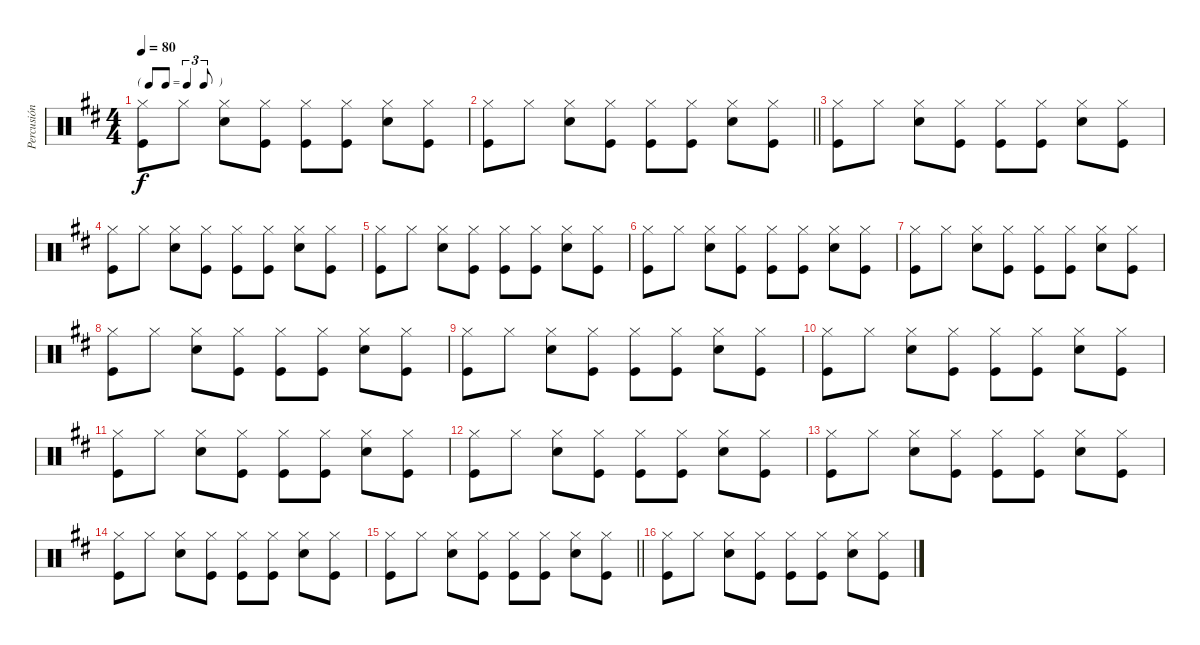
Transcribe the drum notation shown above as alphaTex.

\track ("Percusión" "Percusión") {instrument percussion}
\staff {score}
\articulation defaults
\ts (4 4)
\tf triplet8th
\tempo 80
\clef neutral
\ks d
("Hi-Hat (closed)" "Kick (hit)").8{dy f} "Hi-Hat (closed)".8 ("Hi-Hat (closed)" "Electric Snare (hit)").8 ("Hi-Hat (closed)" "Kick (hit)").8 ("Hi-Hat (closed)" "Kick (hit)").8 ("Hi-Hat (closed)" "Kick (hit)").8 ("Hi-Hat (closed)" "Electric Snare (hit)").8 ("Hi-Hat (closed)" "Kick (hit)").8 |
\barLineRight lightlight
("Hi-Hat (closed)" "Kick (hit)").8 "Hi-Hat (closed)".8 ("Hi-Hat (closed)" "Electric Snare (hit)").8 ("Hi-Hat (closed)" "Kick (hit)").8 ("Hi-Hat (closed)" "Kick (hit)").8 ("Hi-Hat (closed)" "Kick (hit)").8 ("Hi-Hat (closed)" "Electric Snare (hit)").8 ("Hi-Hat (closed)" "Kick (hit)").8 |
("Hi-Hat (closed)" "Kick (hit)").8 "Hi-Hat (closed)".8 ("Hi-Hat (closed)" "Electric Snare (hit)").8 ("Hi-Hat (closed)" "Kick (hit)").8 ("Hi-Hat (closed)" "Kick (hit)").8 ("Hi-Hat (closed)" "Kick (hit)").8 ("Hi-Hat (closed)" "Electric Snare (hit)").8 ("Hi-Hat (closed)" "Kick (hit)").8 |
("Hi-Hat (closed)" "Kick (hit)").8 "Hi-Hat (closed)".8 ("Hi-Hat (closed)" "Electric Snare (hit)").8 ("Hi-Hat (closed)" "Kick (hit)").8 ("Hi-Hat (closed)" "Kick (hit)").8 ("Hi-Hat (closed)" "Kick (hit)").8 ("Hi-Hat (closed)" "Electric Snare (hit)").8 ("Hi-Hat (closed)" "Kick (hit)").8 |
("Hi-Hat (closed)" "Kick (hit)").8 "Hi-Hat (closed)".8 ("Hi-Hat (closed)" "Electric Snare (hit)").8 ("Hi-Hat (closed)" "Kick (hit)").8 ("Hi-Hat (closed)" "Kick (hit)").8 ("Hi-Hat (closed)" "Kick (hit)").8 ("Hi-Hat (closed)" "Electric Snare (hit)").8 ("Hi-Hat (closed)" "Kick (hit)").8 |
("Hi-Hat (closed)" "Kick (hit)").8 "Hi-Hat (closed)".8 ("Hi-Hat (closed)" "Electric Snare (hit)").8 ("Hi-Hat (closed)" "Kick (hit)").8 ("Hi-Hat (closed)" "Kick (hit)").8 ("Hi-Hat (closed)" "Kick (hit)").8 ("Hi-Hat (closed)" "Electric Snare (hit)").8 ("Hi-Hat (closed)" "Kick (hit)").8 |
("Hi-Hat (closed)" "Kick (hit)").8 "Hi-Hat (closed)".8 ("Hi-Hat (closed)" "Electric Snare (hit)").8 ("Hi-Hat (closed)" "Kick (hit)").8 ("Hi-Hat (closed)" "Kick (hit)").8 ("Hi-Hat (closed)" "Kick (hit)").8 ("Hi-Hat (closed)" "Electric Snare (hit)").8 ("Hi-Hat (closed)" "Kick (hit)").8 |
("Hi-Hat (closed)" "Kick (hit)").8 "Hi-Hat (closed)".8 ("Hi-Hat (closed)" "Electric Snare (hit)").8 ("Hi-Hat (closed)" "Kick (hit)").8 ("Hi-Hat (closed)" "Kick (hit)").8 ("Hi-Hat (closed)" "Kick (hit)").8 ("Hi-Hat (closed)" "Electric Snare (hit)").8 ("Hi-Hat (closed)" "Kick (hit)").8 |
("Hi-Hat (closed)" "Kick (hit)").8 "Hi-Hat (closed)".8 ("Hi-Hat (closed)" "Electric Snare (hit)").8 ("Hi-Hat (closed)" "Kick (hit)").8 ("Hi-Hat (closed)" "Kick (hit)").8 ("Hi-Hat (closed)" "Kick (hit)").8 ("Hi-Hat (closed)" "Electric Snare (hit)").8 ("Hi-Hat (closed)" "Kick (hit)").8 |
("Hi-Hat (closed)" "Kick (hit)").8 "Hi-Hat (closed)".8 ("Hi-Hat (closed)" "Electric Snare (hit)").8 ("Hi-Hat (closed)" "Kick (hit)").8 ("Hi-Hat (closed)" "Kick (hit)").8 ("Hi-Hat (closed)" "Kick (hit)").8 ("Hi-Hat (closed)" "Electric Snare (hit)").8 ("Hi-Hat (closed)" "Kick (hit)").8 |
("Hi-Hat (closed)" "Kick (hit)").8 "Hi-Hat (closed)".8 ("Hi-Hat (closed)" "Electric Snare (hit)").8 ("Hi-Hat (closed)" "Kick (hit)").8 ("Hi-Hat (closed)" "Kick (hit)").8 ("Hi-Hat (closed)" "Kick (hit)").8 ("Hi-Hat (closed)" "Electric Snare (hit)").8 ("Hi-Hat (closed)" "Kick (hit)").8 |
("Hi-Hat (closed)" "Kick (hit)").8 "Hi-Hat (closed)".8 ("Hi-Hat (closed)" "Electric Snare (hit)").8 ("Hi-Hat (closed)" "Kick (hit)").8 ("Hi-Hat (closed)" "Kick (hit)").8 ("Hi-Hat (closed)" "Kick (hit)").8 ("Hi-Hat (closed)" "Electric Snare (hit)").8 ("Hi-Hat (closed)" "Kick (hit)").8 |
("Hi-Hat (closed)" "Kick (hit)").8 "Hi-Hat (closed)".8 ("Hi-Hat (closed)" "Electric Snare (hit)").8 ("Hi-Hat (closed)" "Kick (hit)").8 ("Hi-Hat (closed)" "Kick (hit)").8 ("Hi-Hat (closed)" "Kick (hit)").8 ("Hi-Hat (closed)" "Electric Snare (hit)").8 ("Hi-Hat (closed)" "Kick (hit)").8 |
("Hi-Hat (closed)" "Kick (hit)").8 "Hi-Hat (closed)".8 ("Hi-Hat (closed)" "Electric Snare (hit)").8 ("Hi-Hat (closed)" "Kick (hit)").8 ("Hi-Hat (closed)" "Kick (hit)").8 ("Hi-Hat (closed)" "Kick (hit)").8 ("Hi-Hat (closed)" "Electric Snare (hit)").8 ("Hi-Hat (closed)" "Kick (hit)").8 |
\barLineRight lightlight
("Hi-Hat (closed)" "Kick (hit)").8 "Hi-Hat (closed)".8 ("Hi-Hat (closed)" "Electric Snare (hit)").8 ("Hi-Hat (closed)" "Kick (hit)").8 ("Hi-Hat (closed)" "Kick (hit)").8 ("Hi-Hat (closed)" "Kick (hit)").8 ("Hi-Hat (closed)" "Electric Snare (hit)").8 ("Hi-Hat (closed)" "Kick (hit)").8 |
("Hi-Hat (closed)" "Kick (hit)").8 "Hi-Hat (closed)".8 ("Hi-Hat (closed)" "Electric Snare (hit)").8 ("Hi-Hat (closed)" "Kick (hit)").8 ("Hi-Hat (closed)" "Kick (hit)").8 ("Hi-Hat (closed)" "Kick (hit)").8 ("Hi-Hat (closed)" "Electric Snare (hit)").8 ("Hi-Hat (closed)" "Kick (hit)").8
